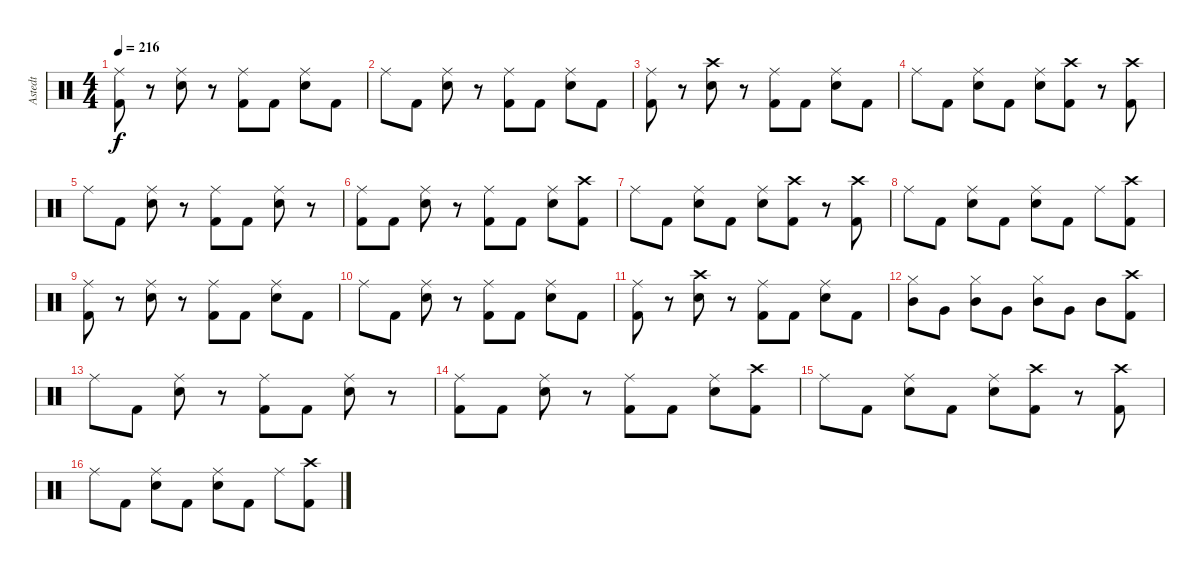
\track ("Astedt" "Astedt") {instrument percussion}
\staff {score}
\articulation defaults
\ts (4 4)
\tempo 216
\clef neutral
\ks c
("Ride (middle)" "Kick (hit) 2").8{dy f} r.8 ("Ride (middle)" "Snare (hit) 2").8 r.8 ("Ride (middle)" "Kick (hit) 2").8 "Kick (hit) 2".8 ("Ride (middle)" "Snare (hit) 2").8 "Kick (hit) 2".8 |
"Ride (middle)".8 "Kick (hit) 2".8 ("Ride (middle)" "Snare (hit) 2").8 r.8 ("Ride (middle)" "Kick (hit) 2").8 "Kick (hit) 2".8 ("Ride (middle)" "Snare (hit) 2").8 "Kick (hit) 2".8 |
("Ride (middle)" "Kick (hit) 2").8 r.8 ("Crash high (hit)" "Snare (hit) 2").8 r.8 ("Ride (middle)" "Kick (hit) 2").8 "Kick (hit) 2".8 ("Ride (middle)" "Snare (hit) 2").8 "Kick (hit) 2".8 |
"Ride (middle)".8 "Kick (hit) 2".8 ("Ride (middle)" "Snare (hit) 2").8 "Kick (hit) 2".8 ("Ride (middle)" "Snare (hit) 2").8 ("Crash high (hit)" "Kick (hit) 2").8 r.8 ("Crash high (hit)" "Kick (hit) 2").8 |
"Ride (middle)".8 "Kick (hit) 2".8 ("Ride (middle)" "Snare (hit) 2").8 r.8 ("Ride (middle)" "Kick (hit) 2").8 "Kick (hit) 2".8 ("Ride (middle)" "Snare (hit) 2").8 r.8 |
("Ride (middle)" "Kick (hit) 2").8 "Kick (hit) 2".8 ("Ride (middle)" "Snare (hit) 2").8 r.8 ("Ride (middle)" "Kick (hit) 2").8 "Kick (hit) 2".8 ("Ride (middle)" "Snare (hit) 2").8 ("Crash high (hit)" "Kick (hit) 2").8 |
"Ride (middle)".8 "Kick (hit) 2".8 ("Ride (middle)" "Snare (hit) 2").8 "Kick (hit) 2".8 ("Ride (middle)" "Snare (hit) 2").8 ("Crash high (hit)" "Kick (hit) 2").8 r.8 ("Crash high (hit)" "Kick (hit) 2").8 |
"Ride (middle)".8 "Kick (hit) 2".8 ("Ride (middle)" "Snare (hit) 2").8 "Kick (hit) 2".8 ("Ride (middle)" "Snare (hit) 2").8 "Kick (hit) 2".8 "Ride (middle)".8 ("Crash high (hit)" "Kick (hit) 2").8 |
("Ride (middle)" "Kick (hit) 2").8 r.8 ("Ride (middle)" "Snare (hit) 2").8 r.8 ("Ride (middle)" "Kick (hit) 2").8 "Kick (hit) 2".8 ("Ride (middle)" "Snare (hit) 2").8 "Kick (hit) 2".8 |
"Ride (middle)".8 "Kick (hit) 2".8 ("Ride (middle)" "Snare (hit) 2").8 r.8 ("Ride (middle)" "Kick (hit) 2").8 "Kick (hit) 2".8 ("Ride (middle)" "Snare (hit) 2").8 "Kick (hit) 2".8 |
("Ride (middle)" "Kick (hit) 2").8 r.8 ("Crash high (hit)" "Snare (hit) 2").8 r.8 ("Ride (middle)" "Kick (hit) 2").8 "Kick (hit) 2".8 ("Ride (middle)" "Snare (hit) 2").8 "Kick (hit) 2".8 |
("Hi-Hat (closed)" "Mid Tom (hit)").8 "Very Low Tom (hit)".8 ("Hi-Hat (closed)" "Mid Tom (hit)").8 "Very Low Tom (hit)".8 ("Hi-Hat (closed)" "Mid Tom (hit)").8 "Very Low Tom (hit)".8 "Mid Tom (hit)".8 ("Crash high (hit)" "Kick (hit) 2").8 |
"Ride (middle)".8 "Kick (hit) 2".8 ("Ride (middle)" "Snare (hit) 2").8 r.8 ("Ride (middle)" "Kick (hit) 2").8 "Kick (hit) 2".8 ("Ride (middle)" "Snare (hit) 2").8 r.8 |
("Ride (middle)" "Kick (hit) 2").8 "Kick (hit) 2".8 ("Ride (middle)" "Snare (hit) 2").8 r.8 ("Ride (middle)" "Kick (hit) 2").8 "Kick (hit) 2".8 ("Ride (middle)" "Snare (hit) 2").8 ("Crash high (hit)" "Kick (hit) 2").8 |
"Ride (middle)".8 "Kick (hit) 2".8 ("Ride (middle)" "Snare (hit) 2").8 "Kick (hit) 2".8 ("Ride (middle)" "Snare (hit) 2").8 ("Crash high (hit)" "Kick (hit) 2").8 r.8 ("Crash high (hit)" "Kick (hit) 2").8 |
"Ride (middle)".8 "Kick (hit) 2".8 ("Ride (middle)" "Snare (hit) 2").8 "Kick (hit) 2".8 ("Ride (middle)" "Snare (hit) 2").8 "Kick (hit) 2".8 "Ride (middle)".8 ("Crash high (hit)" "Kick (hit) 2").8
